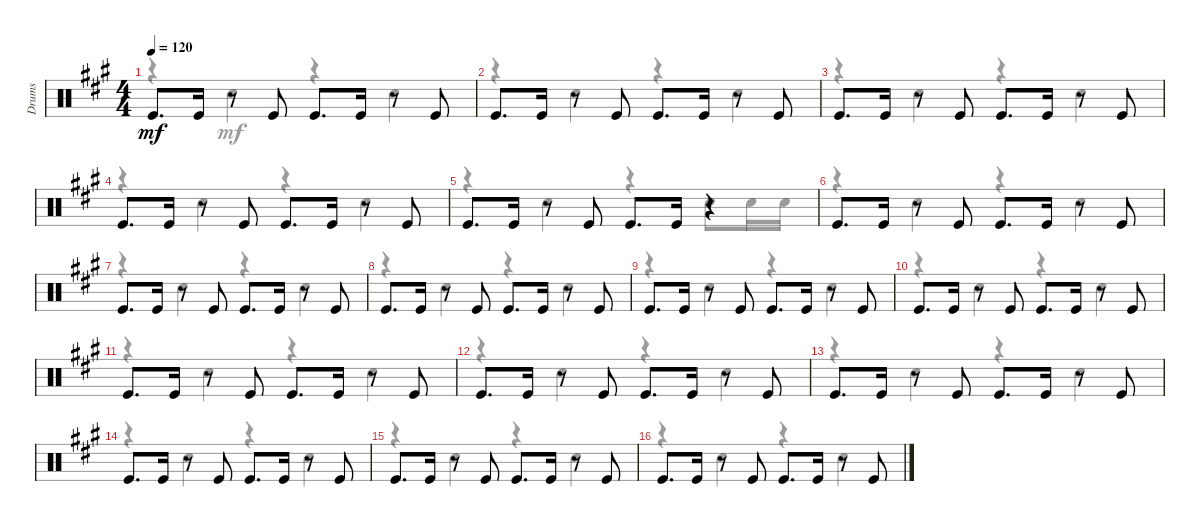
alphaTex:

\track ("Drums" "Drums") {instrument percussion}
\staff {score}
\articulation defaults
\voice
\ts (4 4)
\tempo 120
\clef neutral
\ks f#minor "Kick (hit)".8{d dy mf} "Kick (hit)".16
r.8 "Kick (hit)".8 "Kick (hit)".8{d} "Kick (hit)".16 r.8 "Kick (hit)".8 |
"Kick (hit)".8{d} "Kick (hit)".16 r.8 "Kick (hit)".8 "Kick (hit)".8{d} "Kick (hit)".16 r.8 "Kick (hit)".8 |
"Kick (hit)".8{d} "Kick (hit)".16 r.8 "Kick (hit)".8 "Kick (hit)".8{d} "Kick (hit)".16 r.8 "Kick (hit)".8 |
"Kick (hit)".8{d} "Kick (hit)".16 r.8 "Kick (hit)".8 "Kick (hit)".8{d} "Kick (hit)".16 r.8 "Kick (hit)".8 |
"Kick (hit)".8{d} "Kick (hit)".16 r.8 "Kick (hit)".8 "Kick (hit)".8{d} "Kick (hit)".16 r.4 |
"Kick (hit)".8{d} "Kick (hit)".16 r.8 "Kick (hit)".8 "Kick (hit)".8{d} "Kick (hit)".16 r.8 "Kick (hit)".8 |
"Kick (hit)".8{d} "Kick (hit)".16 r.8 "Kick (hit)".8 "Kick (hit)".8{d} "Kick (hit)".16 r.8 "Kick (hit)".8 |
"Kick (hit)".8{d} "Kick (hit)".16 r.8 "Kick (hit)".8 "Kick (hit)".8{d} "Kick (hit)".16 r.8 "Kick (hit)".8 |
"Kick (hit)".8{d} "Kick (hit)".16 r.8 "Kick (hit)".8 "Kick (hit)".8{d} "Kick (hit)".16 r.8 "Kick (hit)".8 |
"Kick (hit)".8{d} "Kick (hit)".16 r.8 "Kick (hit)".8 "Kick (hit)".8{d} "Kick (hit)".16 r.8 "Kick (hit)".8 |
"Kick (hit)".8{d} "Kick (hit)".16 r.8 "Kick (hit)".8 "Kick (hit)".8{d} "Kick (hit)".16 r.8 "Kick (hit)".8 |
"Kick (hit)".8{d} "Kick (hit)".16 r.8 "Kick (hit)".8 "Kick (hit)".8{d} "Kick (hit)".16 r.8 "Kick (hit)".8 |
"Kick (hit)".8{d} "Kick (hit)".16 r.8 "Kick (hit)".8 "Kick (hit)".8{d} "Kick (hit)".16 r.8 "Kick (hit)".8 |
"Kick (hit)".8{d} "Kick (hit)".16 r.8 "Kick (hit)".8 "Kick (hit)".8{d} "Kick (hit)".16 r.8 "Kick (hit)".8 |
"Kick (hit)".8{d} "Kick (hit)".16 r.8 "Kick (hit)".8 "Kick (hit)".8{d} "Kick (hit)".16 r.8 "Kick (hit)".8 |
"Kick (hit)".8{d} "Kick (hit)".16 r.8 "Kick (hit)".8 "Kick (hit)".8{d} "Kick (hit)".16 r.8 "Kick (hit)".8
\voice
\clef neutral
\ottava regular
\simile none
\ks f#minor
r.4{dy mf} "Snare (hit) 2".4 r.4 "Snare (hit) 2".4 |
r.4 "Snare (hit) 2".4 r.4 "Snare (hit) 2".4 |
r.4 "Snare (hit) 2".4 r.4 "Snare (hit) 2".4 |
r.4 "Snare (hit) 2".4 r.4 "Snare (hit) 2".4 |
r.4 "Snare (hit) 2".4 r.4 "Snare (hit) 2".8 "Snare (hit) 2".16 "Snare (hit) 2".16 |
r.4 "Snare (hit) 2".4 r.4 "Snare (hit) 2".4 |
r.4 "Snare (hit) 2".4 r.4 "Snare (hit) 2".4 |
r.4 "Snare (hit) 2".4 r.4 "Snare (hit) 2".4 |
r.4 "Snare (hit) 2".4 r.4 "Snare (hit) 2".4 |
r.4 "Snare (hit) 2".4 r.4 "Snare (hit) 2".4 |
r.4 "Snare (hit) 2".4 r.4 "Snare (hit) 2".4 |
r.4 "Snare (hit) 2".4 r.4 "Snare (hit) 2".4 |
r.4 "Snare (hit) 2".4 r.4 "Snare (hit) 2".4 |
r.4 "Snare (hit) 2".4 r.4 "Snare (hit) 2".4 |
r.4 "Snare (hit) 2".4 r.4 "Snare (hit) 2".4 |
r.4 "Snare (hit) 2".4 r.4 "Snare (hit) 2".4
